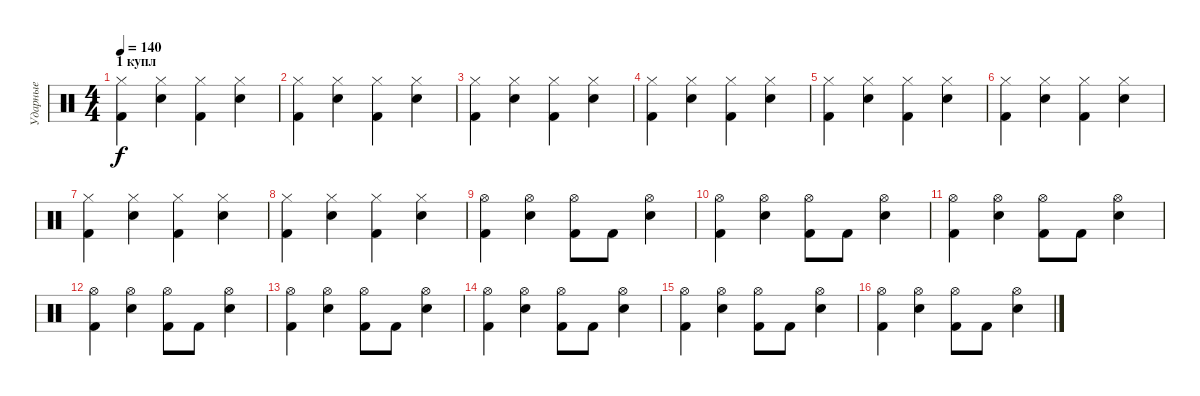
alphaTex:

\track ("Ударные" "Ударные") {instrument percussion}
\staff {score}
\articulation defaults
\ts (4 4)
\section ("" "1 купл")
\tempo 140
\clef neutral
\ks c
("Hi-Hat (closed)" "Kick (hit) 2").4{dy f} ("Hi-Hat (closed)" "Electric Snare (hit)").4 ("Hi-Hat (closed)" "Kick (hit) 2").4 ("Hi-Hat (closed)" "Electric Snare (hit)").4 |
("Hi-Hat (closed)" "Kick (hit) 2").4 ("Hi-Hat (closed)" "Electric Snare (hit)").4 ("Hi-Hat (closed)" "Kick (hit) 2").4 ("Hi-Hat (closed)" "Electric Snare (hit)").4 |
("Hi-Hat (closed)" "Kick (hit) 2").4 ("Hi-Hat (closed)" "Electric Snare (hit)").4 ("Hi-Hat (closed)" "Kick (hit) 2").4 ("Hi-Hat (closed)" "Electric Snare (hit)").4 |
("Hi-Hat (closed)" "Kick (hit) 2").4 ("Hi-Hat (closed)" "Electric Snare (hit)").4 ("Hi-Hat (closed)" "Kick (hit) 2").4 ("Hi-Hat (closed)" "Electric Snare (hit)").4 |
("Hi-Hat (closed)" "Kick (hit) 2").4 ("Hi-Hat (closed)" "Electric Snare (hit)").4 ("Hi-Hat (closed)" "Kick (hit) 2").4 ("Hi-Hat (closed)" "Electric Snare (hit)").4 |
("Hi-Hat (closed)" "Kick (hit) 2").4 ("Hi-Hat (closed)" "Electric Snare (hit)").4 ("Hi-Hat (closed)" "Kick (hit) 2").4 ("Hi-Hat (closed)" "Electric Snare (hit)").4 |
("Hi-Hat (closed)" "Kick (hit) 2").4 ("Hi-Hat (closed)" "Electric Snare (hit)").4 ("Hi-Hat (closed)" "Kick (hit) 2").4 ("Hi-Hat (closed)" "Electric Snare (hit)").4 |
("Hi-Hat (closed)" "Kick (hit) 2").4 ("Hi-Hat (closed)" "Electric Snare (hit)").4 ("Hi-Hat (closed)" "Kick (hit) 2").4 ("Hi-Hat (closed)" "Electric Snare (hit)").4 |
("Hi-Hat (open)" "Kick (hit) 2").4 ("Hi-Hat (open)" "Electric Snare (hit)").4 ("Hi-Hat (open)" "Kick (hit) 2").8 "Kick (hit) 2".8 ("Hi-Hat (open)" "Electric Snare (hit)").4 |
("Hi-Hat (open)" "Kick (hit) 2").4 ("Hi-Hat (open)" "Electric Snare (hit)").4 ("Hi-Hat (open)" "Kick (hit) 2").8 "Kick (hit) 2".8 ("Hi-Hat (open)" "Electric Snare (hit)").4 |
("Hi-Hat (open)" "Kick (hit) 2").4 ("Hi-Hat (open)" "Electric Snare (hit)").4 ("Hi-Hat (open)" "Kick (hit) 2").8 "Kick (hit) 2".8 ("Hi-Hat (open)" "Electric Snare (hit)").4 |
("Hi-Hat (open)" "Kick (hit) 2").4 ("Hi-Hat (open)" "Electric Snare (hit)").4 ("Hi-Hat (open)" "Kick (hit) 2").8 "Kick (hit) 2".8 ("Hi-Hat (open)" "Electric Snare (hit)").4 |
("Hi-Hat (open)" "Kick (hit) 2").4 ("Hi-Hat (open)" "Electric Snare (hit)").4 ("Hi-Hat (open)" "Kick (hit) 2").8 "Kick (hit) 2".8 ("Hi-Hat (open)" "Electric Snare (hit)").4 |
("Hi-Hat (open)" "Kick (hit) 2").4 ("Hi-Hat (open)" "Electric Snare (hit)").4 ("Hi-Hat (open)" "Kick (hit) 2").8 "Kick (hit) 2".8 ("Hi-Hat (open)" "Electric Snare (hit)").4 |
("Hi-Hat (open)" "Kick (hit) 2").4 ("Hi-Hat (open)" "Electric Snare (hit)").4 ("Hi-Hat (open)" "Kick (hit) 2").8 "Kick (hit) 2".8 ("Hi-Hat (open)" "Electric Snare (hit)").4 |
("Hi-Hat (open)" "Kick (hit) 2").4 ("Hi-Hat (open)" "Electric Snare (hit)").4 ("Hi-Hat (open)" "Kick (hit) 2").8 "Kick (hit) 2".8 ("Hi-Hat (open)" "Electric Snare (hit)").4
